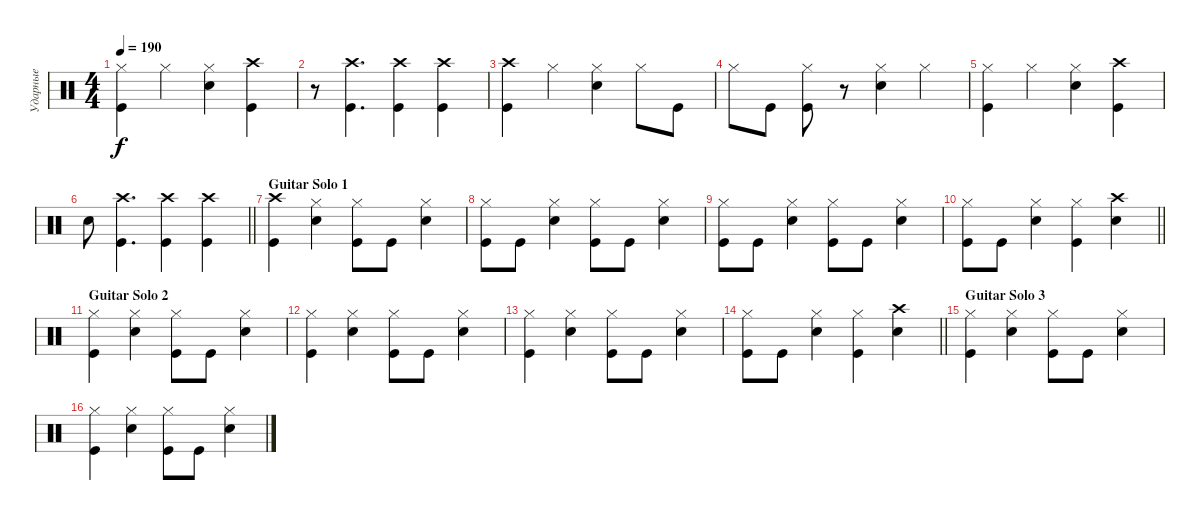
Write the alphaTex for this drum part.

\track ("Ударные" "Ударные") {instrument percussion}
\staff {score}
\articulation defaults
\ts (4 4)
\tempo 190
\clef neutral
\ks aminor
("Kick (hit)" "Hi-Hat (closed)").4{dy f} "Hi-Hat (closed)".4 ("Snare (hit) 2" "Hi-Hat (closed)").4 ("Kick (hit)" "Crash high (hit)").4 |
r.8 ("Kick (hit)" "Crash high (hit)").4{d} ("Kick (hit)" "Crash high (hit)").4 ("Kick (hit)" "Crash high (hit)").4 |
("Kick (hit)" "Crash high (hit)").4 "Hi-Hat (closed)".4 ("Snare (hit) 2" "Hi-Hat (closed)").4 "Hi-Hat (closed)".8 "Kick (hit)".8 |
"Hi-Hat (closed)".8 "Kick (hit)".8 ("Hi-Hat (closed)" "Kick (hit)").8 r.8 ("Snare (hit) 2" "Hi-Hat (closed)").4 "Hi-Hat (closed)".4 |
("Kick (hit)" "Hi-Hat (closed)").4 "Hi-Hat (closed)".4 ("Snare (hit) 2" "Hi-Hat (closed)").4 ("Kick (hit)" "Crash high (hit)").4 |
\barLineRight lightlight "Snare (hit) 2".8
("Kick (hit)" "Crash high (hit)").4{d} ("Kick (hit)" "Crash high (hit)").4 ("Kick (hit)" "Crash high (hit)").4 |
\section ("" "Guitar Solo 1")
("Kick (hit)" "Crash high (hit)").4 ("Snare (hit) 2" "Hi-Hat (closed)").4 ("Kick (hit)" "Hi-Hat (closed)").8 "Kick (hit)".8 ("Snare (hit) 2" "Hi-Hat (closed)").4 |
("Kick (hit)" "Hi-Hat (closed)").8 "Kick (hit)".8 ("Snare (hit) 2" "Hi-Hat (closed)").4 ("Kick (hit)" "Hi-Hat (closed)").8 "Kick (hit)".8 ("Snare (hit) 2" "Hi-Hat (closed)").4 |
("Kick (hit)" "Hi-Hat (closed)").8 "Kick (hit)".8 ("Snare (hit) 2" "Hi-Hat (closed)").4 ("Kick (hit)" "Hi-Hat (closed)").8 "Kick (hit)".8 ("Snare (hit) 2" "Hi-Hat (closed)").4 |
\barLineRight lightlight
("Kick (hit)" "Hi-Hat (closed)").8 "Kick (hit)".8 ("Snare (hit) 2" "Hi-Hat (closed)").4 ("Kick (hit)" "Hi-Hat (closed)").4 ("Snare (hit) 2" "Crash high (hit)").4 |
\section ("" "Guitar Solo 2")
("Kick (hit)" "Hi-Hat (closed)").4 ("Snare (hit) 2" "Hi-Hat (closed)").4 ("Kick (hit)" "Hi-Hat (closed)").8 "Kick (hit)".8 ("Snare (hit) 2" "Hi-Hat (closed)").4 |
("Kick (hit)" "Hi-Hat (closed)").4 ("Snare (hit) 2" "Hi-Hat (closed)").4 ("Kick (hit)" "Hi-Hat (closed)").8 "Kick (hit)".8 ("Snare (hit) 2" "Hi-Hat (closed)").4 |
("Kick (hit)" "Hi-Hat (closed)").4 ("Snare (hit) 2" "Hi-Hat (closed)").4 ("Kick (hit)" "Hi-Hat (closed)").8 "Kick (hit)".8 ("Snare (hit) 2" "Hi-Hat (closed)").4 |
\barLineRight lightlight
("Kick (hit)" "Hi-Hat (closed)").8 "Kick (hit)".8 ("Snare (hit) 2" "Hi-Hat (closed)").4 ("Kick (hit)" "Hi-Hat (closed)").4 ("Snare (hit) 2" "Crash high (hit)").4 |
\section ("" "Guitar Solo 3")
("Kick (hit)" "Hi-Hat (closed)").4 ("Snare (hit) 2" "Hi-Hat (closed)").4 ("Kick (hit)" "Hi-Hat (closed)").8 "Kick (hit)".8 ("Snare (hit) 2" "Hi-Hat (closed)").4 |
("Kick (hit)" "Hi-Hat (closed)").4 ("Snare (hit) 2" "Hi-Hat (closed)").4 ("Kick (hit)" "Hi-Hat (closed)").8 "Kick (hit)".8 ("Snare (hit) 2" "Hi-Hat (closed)").4
